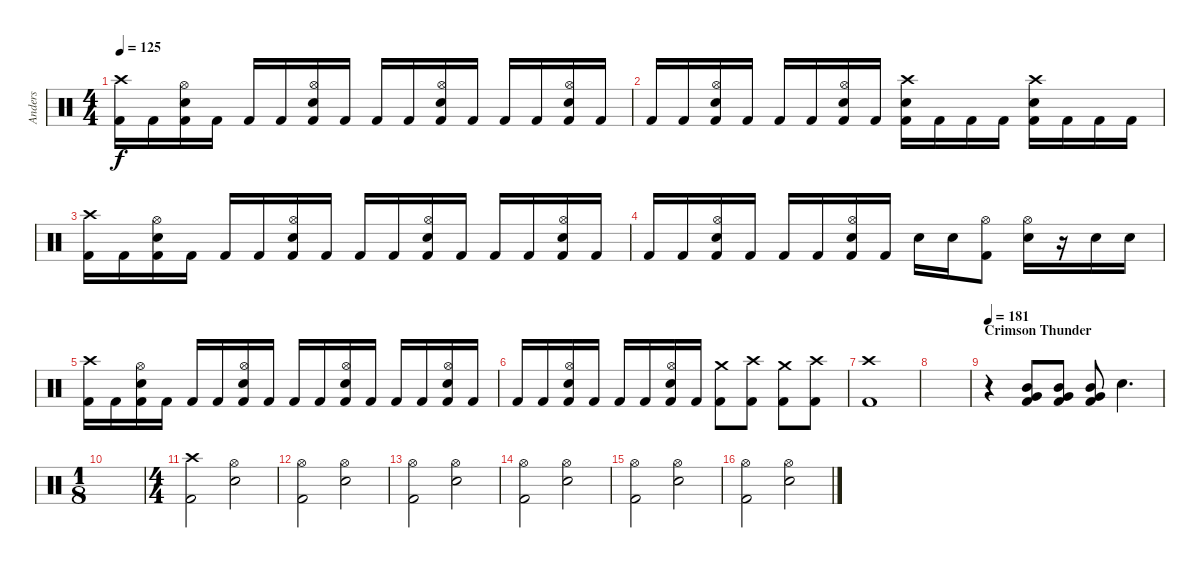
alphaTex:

\track ("Anders" "Anders") {instrument percussion}
\staff {score}
\articulation defaults
\ts (4 4)
\tempo 125
\clef neutral
\ks c
("Crash high (hit)" "Kick (hit) 2").16{dy f} "Kick (hit) 2".16 ("Hi-Hat (open)" "Electric Snare (hit)" "Kick (hit) 2").16 "Kick (hit) 2".16 "Kick (hit) 2".16 "Kick (hit) 2".16 ("Hi-Hat (open)" "Electric Snare (hit)" "Kick (hit) 2").16 "Kick (hit) 2".16 "Kick (hit) 2".16 "Kick (hit) 2".16 ("Hi-Hat (open)" "Electric Snare (hit)" "Kick (hit) 2").16 "Kick (hit) 2".16 "Kick (hit) 2".16 "Kick (hit) 2".16 ("Hi-Hat (open)" "Electric Snare (hit)" "Kick (hit) 2").16 "Kick (hit) 2".16 |
"Kick (hit) 2".16 "Kick (hit) 2".16 ("Hi-Hat (open)" "Electric Snare (hit)" "Kick (hit) 2").16 "Kick (hit) 2".16 "Kick (hit) 2".16 "Kick (hit) 2".16 ("Hi-Hat (open)" "Electric Snare (hit)" "Kick (hit) 2").16 "Kick (hit) 2".16 ("Crash high (hit)" "Electric Snare (hit)" "Kick (hit) 2").16 "Kick (hit) 2".16 "Kick (hit) 2".16 "Kick (hit) 2".16 ("Crash high (hit)" "Electric Snare (hit)" "Kick (hit) 2").16 "Kick (hit) 2".16 "Kick (hit) 2".16 "Kick (hit) 2".16 |
("Crash high (hit)" "Kick (hit) 2").16 "Kick (hit) 2".16 ("Hi-Hat (open)" "Electric Snare (hit)" "Kick (hit) 2").16 "Kick (hit) 2".16 "Kick (hit) 2".16 "Kick (hit) 2".16 ("Hi-Hat (open)" "Electric Snare (hit)" "Kick (hit) 2").16 "Kick (hit) 2".16 "Kick (hit) 2".16 "Kick (hit) 2".16 ("Hi-Hat (open)" "Electric Snare (hit)" "Kick (hit) 2").16 "Kick (hit) 2".16 "Kick (hit) 2".16 "Kick (hit) 2".16 ("Hi-Hat (open)" "Electric Snare (hit)" "Kick (hit) 2").16 "Kick (hit) 2".16 |
"Kick (hit) 2".16 "Kick (hit) 2".16 ("Hi-Hat (open)" "Electric Snare (hit)" "Kick (hit) 2").16 "Kick (hit) 2".16 "Kick (hit) 2".16 "Kick (hit) 2".16 ("Hi-Hat (open)" "Electric Snare (hit)" "Kick (hit) 2").16 "Kick (hit) 2".16 "Electric Snare (hit)".16 "Electric Snare (hit)".16 ("Hi-Hat (open)" "Kick (hit) 2").8 ("Hi-Hat (open)" "Electric Snare (hit)").16 r.16 "Electric Snare (hit)".16 "Electric Snare (hit)".16 |
("Crash high (hit)" "Kick (hit) 2").16 "Kick (hit) 2".16 ("Hi-Hat (open)" "Electric Snare (hit)" "Kick (hit) 2").16 "Kick (hit) 2".16 "Kick (hit) 2".16 "Kick (hit) 2".16 ("Hi-Hat (open)" "Electric Snare (hit)" "Kick (hit) 2").16 "Kick (hit) 2".16 "Kick (hit) 2".16 "Kick (hit) 2".16 ("Hi-Hat (open)" "Electric Snare (hit)" "Kick (hit) 2").16 "Kick (hit) 2".16 "Kick (hit) 2".16 "Kick (hit) 2".16 ("Hi-Hat (open)" "Electric Snare (hit)" "Kick (hit) 2").16 "Kick (hit) 2".16 |
"Kick (hit) 2".16 "Kick (hit) 2".16 ("Hi-Hat (open)" "Electric Snare (hit)" "Kick (hit) 2").16 "Kick (hit) 2".16 "Kick (hit) 2".16 "Kick (hit) 2".16 ("Hi-Hat (open)" "Electric Snare (hit)" "Kick (hit) 2").16 "Kick (hit) 2".16 ("Crash medium (hit)" "Kick (hit) 2").8 ("Crash high (hit)" "Kick (hit) 2").8 ("Crash medium (hit)" "Kick (hit) 2").8 ("Crash high (hit)" "Kick (hit) 2").8 |
("Crash high (hit)" "Kick (hit) 2").1 |
|
\section ("" "Crimson Thunder")
\tempo 185
\tempo 181
r.4{volume 16} ("Mid Tom (hit)" "Very Low Tom (hit)" "Kick (hit) 2").8 ("Mid Tom (hit)" "Very Low Tom (hit)" "Kick (hit) 2").8 ("Mid Tom (hit)" "Very Low Tom (hit)" "Kick (hit) 2").8 "Electric Snare (hit)".4{d} |
\ts (1 8)
|
\ts (4 4)
("Crash high (hit)" "Kick (hit) 2").2 ("Hi-Hat (open)" "Electric Snare (hit)").2 |
("Hi-Hat (open)" "Kick (hit) 2").2 ("Hi-Hat (open)" "Electric Snare (hit)").2 |
("Hi-Hat (open)" "Kick (hit) 2").2 ("Hi-Hat (open)" "Electric Snare (hit)").2 |
("Hi-Hat (open)" "Kick (hit) 2").2 ("Hi-Hat (open)" "Electric Snare (hit)").2 |
("Hi-Hat (open)" "Kick (hit) 2").2 ("Hi-Hat (open)" "Electric Snare (hit)").2 |
("Hi-Hat (open)" "Kick (hit) 2").2 ("Hi-Hat (open)" "Electric Snare (hit)").2
